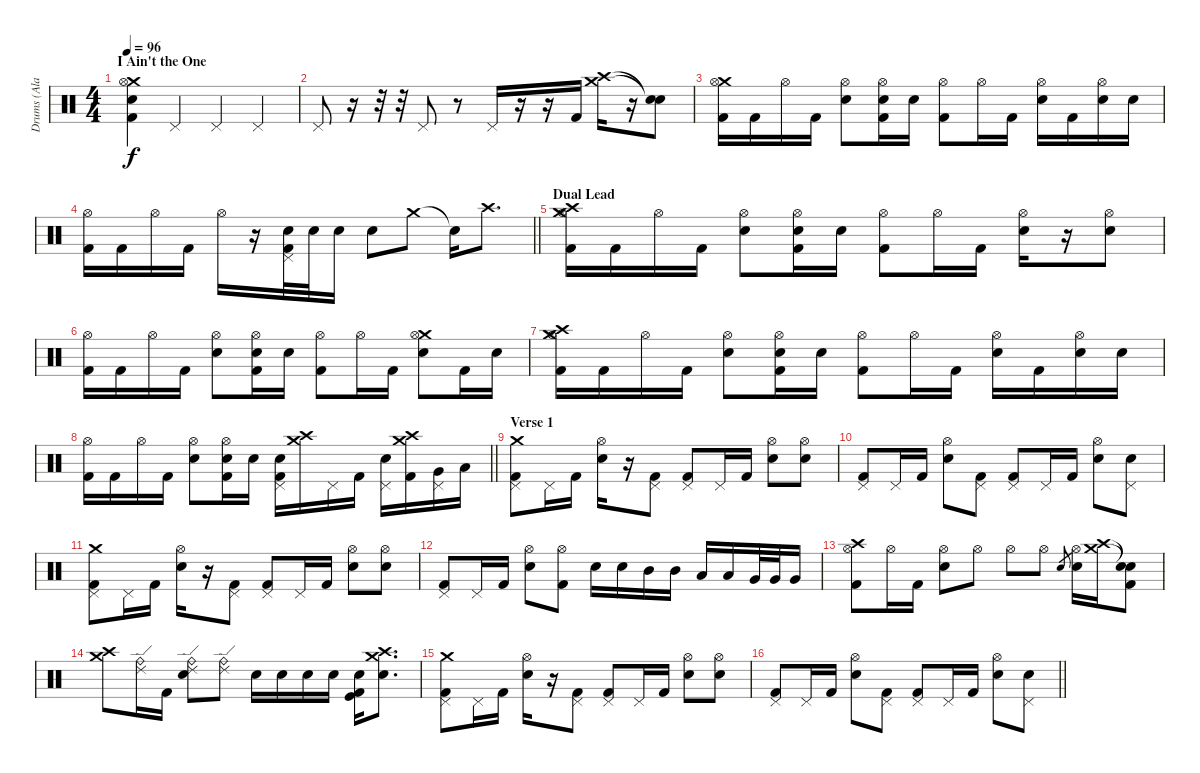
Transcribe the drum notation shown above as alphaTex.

\track ("Drums (Ala Pyle)" "Drums (Ala") {instrument percussion}
\staff {score}
\articulation defaults
\ts (4 4)
\section ("" "I Ain't the One")
\tempo 96
\clef neutral
\ks c
("Crash medium (hit)" "Electric Snare (hit)" "Hi-Hat (open)" "Kick (hit) 2").4{dy f} "Pedal Hi-Hat (hit)".4 "Pedal Hi-Hat (hit)".4 "Pedal Hi-Hat (hit)".4 |
"Pedal Hi-Hat (hit)".8 r.16 r.32 r.32 "Pedal Hi-Hat (hit)".8 r.8 "Pedal Hi-Hat (hit)".16 r.16 r.16 "Kick (hit) 2".16 ("Crash medium (hit)" "Crash high (hit)").16 r.16 ("Snare (hit)"{t} "Snare (hit)"{t}).8 |
("Crash medium (hit)" "Hi-Hat (open)" "Kick (hit) 2").16 "Kick (hit) 2".16 "Hi-Hat (open)".16 "Kick (hit) 2".16 ("Hi-Hat (open)" "Electric Snare (hit)").8 ("Hi-Hat (open)" "Electric Snare (hit)" "Kick (hit) 2").16 "Electric Snare (hit)".16 ("Hi-Hat (open)" "Kick (hit) 2").8 "Hi-Hat (open)".16 "Kick (hit) 2".16 ("Hi-Hat (open)" "Electric Snare (hit)").16 "Kick (hit) 2".16 ("Hi-Hat (open)" "Electric Snare (hit)").16 "Electric Snare (hit)".16 |
\barLineRight lightlight
("Hi-Hat (open)" "Kick (hit) 2").16 "Kick (hit) 2".16 "Hi-Hat (open)".16 "Kick (hit) 2".16 "Hi-Hat (open)".16 r.16 ("Pedal Hi-Hat (hit)" "Snare (hit) 2" "Kick (hit) 2").32 "Snare (hit) 2".32 "Electric Snare (hit)".16 "Electric Snare (hit)".8 "Crash medium (hit)".8 "Snare (hit)"{t}.16 "Crash high (hit)".8{d} |
\section ("" "Dual Lead")
("Crash medium (hit)" "Crash high (hit)" "Hi-Hat (open)" "Kick (hit) 2").16 "Kick (hit) 2".16 "Hi-Hat (open)".16 "Kick (hit) 2".16 ("Hi-Hat (open)" "Electric Snare (hit)").8 ("Hi-Hat (open)" "Electric Snare (hit)" "Kick (hit) 2").16 "Electric Snare (hit)".16 ("Hi-Hat (open)" "Kick (hit) 2").8 "Hi-Hat (open)".16 "Kick (hit) 2".16 ("Hi-Hat (open)" "Electric Snare (hit)").16 r.16 ("Hi-Hat (open)" "Electric Snare (hit)").8 |
("Hi-Hat (open)" "Kick (hit) 2").16 "Kick (hit) 2".16 "Hi-Hat (open)".16 "Kick (hit) 2".16 ("Hi-Hat (open)" "Electric Snare (hit)").8 ("Hi-Hat (open)" "Electric Snare (hit)" "Kick (hit) 2").16 "Electric Snare (hit)".16 ("Hi-Hat (open)" "Kick (hit) 2").8 "Hi-Hat (open)".16 "Kick (hit) 2".16 ("Crash medium (hit)" "Hi-Hat (open)" "Electric Snare (hit)").8 "Kick (hit) 2".16 "Electric Snare (hit)".16 |
("Crash high (hit)" "Crash medium (hit)" "Hi-Hat (open)" "Kick (hit) 2").16 "Kick (hit) 2".16 "Hi-Hat (open)".16 "Kick (hit) 2".16 ("Hi-Hat (open)" "Electric Snare (hit)").8 ("Hi-Hat (open)" "Electric Snare (hit)" "Kick (hit) 2").16 "Electric Snare (hit)".16 ("Hi-Hat (open)" "Kick (hit) 2").8 "Hi-Hat (open)".16 "Kick (hit) 2".16 ("Hi-Hat (open)" "Electric Snare (hit)").16 "Kick (hit) 2".16 ("Hi-Hat (open)" "Electric Snare (hit)").16 "Electric Snare (hit)".16 |
\barLineRight lightlight
("Hi-Hat (open)" "Kick (hit) 2").16 "Kick (hit) 2".16 "Hi-Hat (open)".16 "Kick (hit) 2".16 ("Hi-Hat (open)" "Electric Snare (hit)").8 ("Hi-Hat (open)" "Electric Snare (hit)" "Kick (hit) 2").16 "Electric Snare (hit)".16 ("Pedal Hi-Hat (hit)" "Electric Snare (hit)" "Kick (hit) 2").16 ("Crash medium (hit)" "Crash high (hit)").16 "Pedal Hi-Hat (hit)".16 "Kick (hit) 2".16 ("Pedal Hi-Hat (hit)" "Electric Snare (hit)").16 ("Crash high (hit)" "Crash medium (hit)" "Kick (hit) 2").16 ("Pedal Hi-Hat (hit)" "Very Low Tom (hit)").16 "Low Floor Tom (hit)".16 |
\section ("" "Verse 1")
("Crash medium (hit)" "Pedal Hi-Hat (hit)" "Kick (hit) 2").8 "Pedal Hi-Hat (hit)".16 "Kick (hit) 2".16 ("Electric Snare (hit)" "Hi-Hat (open)").16 r.16 ("Pedal Hi-Hat (hit)" "Kick (hit) 2").8 ("Pedal Hi-Hat (hit)" "Kick (hit) 2").8 "Pedal Hi-Hat (hit)".16 "Kick (hit) 2".16 ("Electric Snare (hit)" "Hi-Hat (open)").8 ("Electric Snare (hit)" "Hi-Hat (open)").8 |
("Pedal Hi-Hat (hit)" "Kick (hit) 2").8 "Pedal Hi-Hat (hit)".16 "Kick (hit) 2".16 ("Electric Snare (hit)" "Hi-Hat (open)").8 ("Pedal Hi-Hat (hit)" "Kick (hit) 2").8 ("Pedal Hi-Hat (hit)" "Kick (hit) 2").8 "Pedal Hi-Hat (hit)".16 "Kick (hit) 2".16 ("Electric Snare (hit)" "Hi-Hat (open)").8 ("Electric Snare (hit)" "Pedal Hi-Hat (hit)").8 |
("Crash medium (hit)" "Pedal Hi-Hat (hit)" "Kick (hit) 2").8 "Pedal Hi-Hat (hit)".16 "Kick (hit) 2".16 ("Electric Snare (hit)" "Hi-Hat (open)").16 r.16 ("Pedal Hi-Hat (hit)" "Kick (hit) 2").8 ("Pedal Hi-Hat (hit)" "Kick (hit) 2").8 "Pedal Hi-Hat (hit)".16 "Kick (hit) 2".16 ("Electric Snare (hit)" "Hi-Hat (open)").8 ("Electric Snare (hit)" "Hi-Hat (open)").8 |
("Pedal Hi-Hat (hit)" "Kick (hit) 2").8 "Pedal Hi-Hat (hit)".16 "Kick (hit) 2".16 ("Electric Snare (hit)" "Hi-Hat (open)").8 ("Hi-Hat (open)" "Kick (hit) 2").8 "Electric Snare (hit)".16 "Electric Snare (hit)".16 "Mid Tom (hit)".16 "Mid Tom (hit)".16 "Low Tom (hit)".16 "Low Tom (hit)".16 "Very Low Tom (hit)".32 "Very Low Tom (hit)".32 "Very Low Tom (hit)".16 |
("Crash high (hit)" "Hi-Hat (open)" "Kick (hit) 2").8 "Hi-Hat (open)".16 "Kick (hit) 2".16 ("Electric Snare (hit)" "Hi-Hat (open)").8 "Hi-Hat (open)".8 "Hi-Hat (open)".8 "Hi-Hat (open)".8 "Electric Snare (hit)".8{gr} ("Electric Snare (hit)" "Hi-Hat (open)").16 ("Crash high (hit)" "Crash medium (hit)").16 ("Snare (hit)"{t} "Snare (hit)"{t} "Kick (hit) 2").8 |
("Crash high (hit)" "Crash medium (hit)").8 ("Ride (bell)" "Ride (edge) 2").16 "Kick (hit) 2".16 ("Ride (bell)" "Ride (edge) 2" "Electric Snare (hit)").8 ("Ride (bell)" "Ride (edge) 2").8 "Electric Snare (hit)".16 "Electric Snare (hit)".16 "Electric Snare (hit)".16 "Electric Snare (hit)".16 ("Electric Snare (hit)" "Kick (hit)" "Kick (hit) 2").16 ("Crash medium (hit)" "Crash high (hit)" "Electric Snare (hit)").8{d} |
("Crash medium (hit)" "Pedal Hi-Hat (hit)" "Kick (hit) 2").8 "Pedal Hi-Hat (hit)".16 "Kick (hit) 2".16 ("Electric Snare (hit)" "Hi-Hat (open)").16 r.16 ("Pedal Hi-Hat (hit)" "Kick (hit) 2").8 ("Pedal Hi-Hat (hit)" "Kick (hit) 2").8 "Pedal Hi-Hat (hit)".16 "Kick (hit) 2".16 ("Electric Snare (hit)" "Hi-Hat (open)").8 ("Electric Snare (hit)" "Hi-Hat (open)").8 |
\barLineRight lightlight
("Pedal Hi-Hat (hit)" "Kick (hit) 2").8 "Pedal Hi-Hat (hit)".16 "Kick (hit) 2".16 ("Electric Snare (hit)" "Hi-Hat (open)").8 ("Pedal Hi-Hat (hit)" "Kick (hit) 2").8 ("Pedal Hi-Hat (hit)" "Kick (hit) 2").8 "Pedal Hi-Hat (hit)".16 "Kick (hit) 2".16 ("Electric Snare (hit)" "Hi-Hat (open)").8 ("Electric Snare (hit)" "Pedal Hi-Hat (hit)").8
